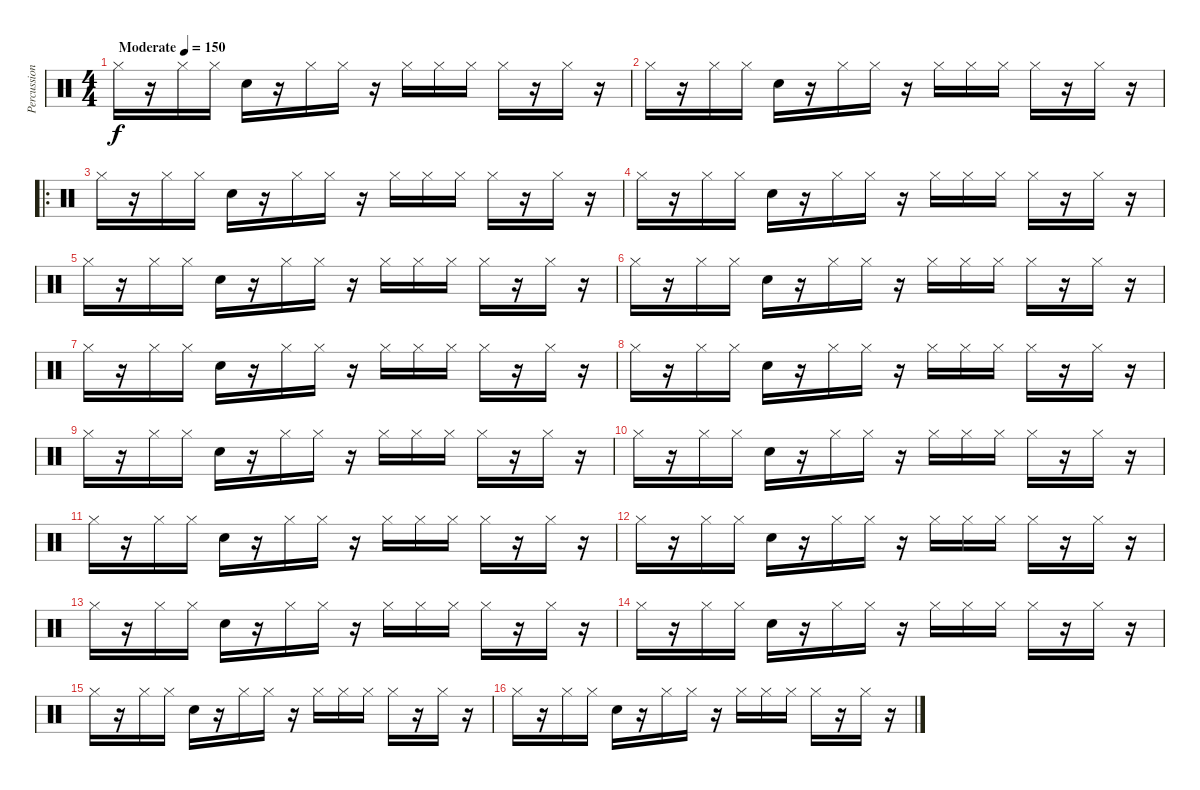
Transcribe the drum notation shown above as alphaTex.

\track ("Percussion" "Percussion") {instrument percussion}
\staff {score}
\articulation defaults
\ts (4 4)
\tempo (150 "Moderate")
\clef neutral
\ks c "Hi-Hat (closed)".16{dy f}
r.16 "Hi-Hat (closed)".16 "Hi-Hat (closed)".16 "Snare (hit) 2".16 r.16 "Hi-Hat (closed)".16 "Hi-Hat (closed)".16 r.16 "Hi-Hat (closed)".16 "Hi-Hat (closed)".16 "Hi-Hat (closed)".16 "Hi-Hat (closed)".16 r.16 "Hi-Hat (closed)".16 r.16 |
"Hi-Hat (closed)".16 r.16 "Hi-Hat (closed)".16 "Hi-Hat (closed)".16 "Snare (hit) 2".16 r.16 "Hi-Hat (closed)".16 "Hi-Hat (closed)".16 r.16 "Hi-Hat (closed)".16 "Hi-Hat (closed)".16 "Hi-Hat (closed)".16 "Hi-Hat (closed)".16 r.16 "Hi-Hat (closed)".16 r.16 |
\ro "Hi-Hat (closed)".16
r.16 "Hi-Hat (closed)".16 "Hi-Hat (closed)".16 "Snare (hit) 2".16 r.16 "Hi-Hat (closed)".16 "Hi-Hat (closed)".16 r.16 "Hi-Hat (closed)".16 "Hi-Hat (closed)".16 "Hi-Hat (closed)".16 "Hi-Hat (closed)".16 r.16 "Hi-Hat (closed)".16 r.16 |
"Hi-Hat (closed)".16 r.16 "Hi-Hat (closed)".16 "Hi-Hat (closed)".16 "Snare (hit) 2".16 r.16 "Hi-Hat (closed)".16 "Hi-Hat (closed)".16 r.16 "Hi-Hat (closed)".16 "Hi-Hat (closed)".16 "Hi-Hat (closed)".16 "Hi-Hat (closed)".16 r.16 "Hi-Hat (closed)".16 r.16 |
"Hi-Hat (closed)".16 r.16 "Hi-Hat (closed)".16 "Hi-Hat (closed)".16 "Snare (hit) 2".16 r.16 "Hi-Hat (closed)".16 "Hi-Hat (closed)".16 r.16 "Hi-Hat (closed)".16 "Hi-Hat (closed)".16 "Hi-Hat (closed)".16 "Hi-Hat (closed)".16 r.16 "Hi-Hat (closed)".16 r.16 |
"Hi-Hat (closed)".16 r.16 "Hi-Hat (closed)".16 "Hi-Hat (closed)".16 "Snare (hit) 2".16 r.16 "Hi-Hat (closed)".16 "Hi-Hat (closed)".16 r.16 "Hi-Hat (closed)".16 "Hi-Hat (closed)".16 "Hi-Hat (closed)".16 "Hi-Hat (closed)".16 r.16 "Hi-Hat (closed)".16 r.16 |
"Hi-Hat (closed)".16 r.16 "Hi-Hat (closed)".16 "Hi-Hat (closed)".16 "Snare (hit) 2".16 r.16 "Hi-Hat (closed)".16 "Hi-Hat (closed)".16 r.16 "Hi-Hat (closed)".16 "Hi-Hat (closed)".16 "Hi-Hat (closed)".16 "Hi-Hat (closed)".16 r.16 "Hi-Hat (closed)".16 r.16 |
"Hi-Hat (closed)".16 r.16 "Hi-Hat (closed)".16 "Hi-Hat (closed)".16 "Snare (hit) 2".16 r.16 "Hi-Hat (closed)".16 "Hi-Hat (closed)".16 r.16 "Hi-Hat (closed)".16 "Hi-Hat (closed)".16 "Hi-Hat (closed)".16 "Hi-Hat (closed)".16 r.16 "Hi-Hat (closed)".16 r.16 |
"Hi-Hat (closed)".16 r.16 "Hi-Hat (closed)".16 "Hi-Hat (closed)".16 "Snare (hit) 2".16 r.16 "Hi-Hat (closed)".16 "Hi-Hat (closed)".16 r.16 "Hi-Hat (closed)".16 "Hi-Hat (closed)".16 "Hi-Hat (closed)".16 "Hi-Hat (closed)".16 r.16 "Hi-Hat (closed)".16 r.16 |
"Hi-Hat (closed)".16 r.16 "Hi-Hat (closed)".16 "Hi-Hat (closed)".16 "Snare (hit) 2".16 r.16 "Hi-Hat (closed)".16 "Hi-Hat (closed)".16 r.16 "Hi-Hat (closed)".16 "Hi-Hat (closed)".16 "Hi-Hat (closed)".16 "Hi-Hat (closed)".16 r.16 "Hi-Hat (closed)".16 r.16 |
"Hi-Hat (closed)".16 r.16 "Hi-Hat (closed)".16 "Hi-Hat (closed)".16 "Snare (hit) 2".16 r.16 "Hi-Hat (closed)".16 "Hi-Hat (closed)".16 r.16 "Hi-Hat (closed)".16 "Hi-Hat (closed)".16 "Hi-Hat (closed)".16 "Hi-Hat (closed)".16 r.16 "Hi-Hat (closed)".16 r.16 |
"Hi-Hat (closed)".16 r.16 "Hi-Hat (closed)".16 "Hi-Hat (closed)".16 "Snare (hit) 2".16 r.16 "Hi-Hat (closed)".16 "Hi-Hat (closed)".16 r.16 "Hi-Hat (closed)".16 "Hi-Hat (closed)".16 "Hi-Hat (closed)".16 "Hi-Hat (closed)".16 r.16 "Hi-Hat (closed)".16 r.16 |
"Hi-Hat (closed)".16 r.16 "Hi-Hat (closed)".16 "Hi-Hat (closed)".16 "Snare (hit) 2".16 r.16 "Hi-Hat (closed)".16 "Hi-Hat (closed)".16 r.16 "Hi-Hat (closed)".16 "Hi-Hat (closed)".16 "Hi-Hat (closed)".16 "Hi-Hat (closed)".16 r.16 "Hi-Hat (closed)".16 r.16 |
"Hi-Hat (closed)".16 r.16 "Hi-Hat (closed)".16 "Hi-Hat (closed)".16 "Snare (hit) 2".16 r.16 "Hi-Hat (closed)".16 "Hi-Hat (closed)".16 r.16 "Hi-Hat (closed)".16 "Hi-Hat (closed)".16 "Hi-Hat (closed)".16 "Hi-Hat (closed)".16 r.16 "Hi-Hat (closed)".16 r.16 |
"Hi-Hat (closed)".16 r.16 "Hi-Hat (closed)".16 "Hi-Hat (closed)".16 "Snare (hit) 2".16 r.16 "Hi-Hat (closed)".16 "Hi-Hat (closed)".16 r.16 "Hi-Hat (closed)".16 "Hi-Hat (closed)".16 "Hi-Hat (closed)".16 "Hi-Hat (closed)".16 r.16 "Hi-Hat (closed)".16 r.16 |
"Hi-Hat (closed)".16 r.16 "Hi-Hat (closed)".16 "Hi-Hat (closed)".16 "Snare (hit) 2".16 r.16 "Hi-Hat (closed)".16 "Hi-Hat (closed)".16 r.16 "Hi-Hat (closed)".16 "Hi-Hat (closed)".16 "Hi-Hat (closed)".16 "Hi-Hat (closed)".16 r.16 "Hi-Hat (closed)".16 r.16
